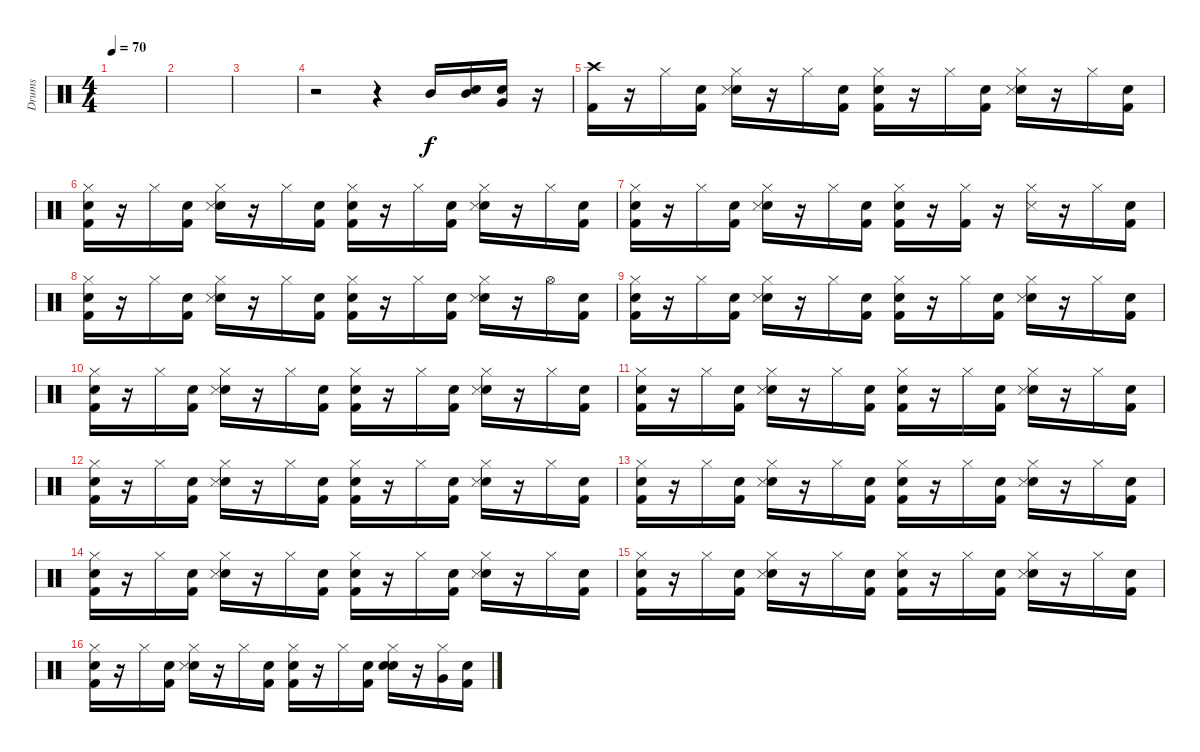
\track ("Drums" "Drums") {instrument percussion}
\staff {score}
\articulation defaults
\ts (4 4)
\tempo 70
\clef neutral
\ks c
|
|
|
r.2 r.4 "Mid Tom (hit)".16 ("Snare (hit)" "Mid Tom (hit)").16 ("Snare (hit)" "Very Low Tom (hit)").16 r.16 |
("Kick (hit) 2" "Crash high (hit)").16 r.16 "Hi-Hat (closed)".16 ("Snare (hit)" "Kick (hit) 2").16 ("Snare (hit)" "Snare (side stick) 3" "Hi-Hat (closed)").16 r.16 "Hi-Hat (closed)".16 ("Snare (hit)" "Kick (hit) 2").16 ("Snare (hit)" "Kick (hit) 2" "Hi-Hat (closed)").16 r.16 "Hi-Hat (closed)".16 ("Snare (hit)" "Kick (hit) 2").16 ("Snare (hit)" "Snare (side stick) 3" "Hi-Hat (closed)").16 r.16 "Hi-Hat (closed)".16 ("Snare (hit)" "Kick (hit) 2").16 |
("Snare (hit)" "Kick (hit) 2" "Hi-Hat (closed)").16 r.16 "Hi-Hat (closed)".16 ("Snare (hit)" "Kick (hit) 2").16 ("Snare (hit)" "Snare (side stick) 3" "Hi-Hat (closed)").16 r.16 "Hi-Hat (closed)".16 ("Snare (hit)" "Kick (hit) 2").16 ("Snare (hit)" "Kick (hit) 2" "Hi-Hat (closed)").16 r.16 "Hi-Hat (closed)".16 ("Snare (hit)" "Kick (hit) 2").16 ("Snare (hit)" "Snare (side stick) 3" "Hi-Hat (closed)").16 r.16 "Hi-Hat (closed)".16 ("Snare (hit)" "Kick (hit) 2").16 |
("Snare (hit)" "Kick (hit) 2" "Hi-Hat (closed)").16 r.16 "Hi-Hat (closed)".16 ("Snare (hit)" "Kick (hit) 2").16 ("Snare (hit)" "Snare (side stick) 3" "Hi-Hat (closed)").16 r.16 "Hi-Hat (closed)".16 ("Snare (hit)" "Kick (hit) 2").16 ("Snare (hit)" "Kick (hit) 2" "Hi-Hat (closed)").16 r.16 ("Kick (hit) 2" "Hi-Hat (closed)").16 r.16 ("Snare (side stick) 3" "Hi-Hat (closed)").16 r.16 "Hi-Hat (closed)".16 ("Snare (hit)" "Kick (hit) 2").16 |
("Snare (hit)" "Kick (hit) 2" "Hi-Hat (closed)").16 r.16 "Hi-Hat (closed)".16 ("Snare (hit)" "Kick (hit) 2").16 ("Snare (hit)" "Snare (side stick) 3" "Hi-Hat (closed)").16 r.16 "Hi-Hat (closed)".16 ("Snare (hit)" "Kick (hit) 2").16 ("Snare (hit)" "Kick (hit) 2" "Hi-Hat (closed)").16 r.16 "Hi-Hat (closed)".16 ("Snare (hit)" "Kick (hit) 2").16 ("Snare (hit)" "Snare (side stick) 3" "Hi-Hat (closed)").16 r.16 "Hi-Hat (open)".16 ("Snare (hit)" "Kick (hit) 2").16 |
("Snare (hit)" "Kick (hit) 2" "Hi-Hat (closed)").16 r.16 "Hi-Hat (closed)".16 ("Snare (hit)" "Kick (hit) 2").16 ("Snare (hit)" "Snare (side stick) 3" "Hi-Hat (closed)").16 r.16 "Hi-Hat (closed)".16 ("Snare (hit)" "Kick (hit) 2").16 ("Snare (hit)" "Kick (hit) 2" "Hi-Hat (closed)").16 r.16 "Hi-Hat (closed)".16 ("Snare (hit)" "Kick (hit) 2").16 ("Snare (hit)" "Snare (side stick) 3" "Hi-Hat (closed)").16 r.16 "Hi-Hat (closed)".16 ("Snare (hit)" "Kick (hit) 2").16 |
("Snare (hit)" "Kick (hit) 2" "Hi-Hat (closed)").16 r.16 "Hi-Hat (closed)".16 ("Snare (hit)" "Kick (hit) 2").16 ("Snare (hit)" "Snare (side stick) 3" "Hi-Hat (closed)").16 r.16 "Hi-Hat (closed)".16 ("Snare (hit)" "Kick (hit) 2").16 ("Snare (hit)" "Kick (hit) 2" "Hi-Hat (closed)").16 r.16 "Hi-Hat (closed)".16 ("Snare (hit)" "Kick (hit) 2").16 ("Snare (hit)" "Snare (side stick) 3" "Hi-Hat (closed)").16 r.16 "Hi-Hat (closed)".16 ("Snare (hit)" "Kick (hit) 2").16 |
("Snare (hit)" "Kick (hit) 2" "Hi-Hat (closed)").16 r.16 "Hi-Hat (closed)".16 ("Snare (hit)" "Kick (hit) 2").16 ("Snare (hit)" "Snare (side stick) 3" "Hi-Hat (closed)").16 r.16 "Hi-Hat (closed)".16 ("Snare (hit)" "Kick (hit) 2").16 ("Snare (hit)" "Kick (hit) 2" "Hi-Hat (closed)").16 r.16 "Hi-Hat (closed)".16 ("Snare (hit)" "Kick (hit) 2").16 ("Snare (hit)" "Snare (side stick) 3" "Hi-Hat (closed)").16 r.16 "Hi-Hat (closed)".16 ("Snare (hit)" "Kick (hit) 2").16 |
("Snare (hit)" "Kick (hit) 2" "Hi-Hat (closed)").16 r.16 "Hi-Hat (closed)".16 ("Snare (hit)" "Kick (hit) 2").16 ("Snare (hit)" "Snare (side stick) 3" "Hi-Hat (closed)").16 r.16 "Hi-Hat (closed)".16 ("Snare (hit)" "Kick (hit) 2").16 ("Snare (hit)" "Kick (hit) 2" "Hi-Hat (closed)").16 r.16 "Hi-Hat (closed)".16 ("Snare (hit)" "Kick (hit) 2").16 ("Snare (hit)" "Snare (side stick) 3" "Hi-Hat (closed)").16 r.16 "Hi-Hat (closed)".16 ("Snare (hit)" "Kick (hit) 2").16 |
("Snare (hit)" "Kick (hit) 2" "Hi-Hat (closed)").16 r.16 "Hi-Hat (closed)".16 ("Snare (hit)" "Kick (hit) 2").16 ("Snare (hit)" "Snare (side stick) 3" "Hi-Hat (closed)").16 r.16 "Hi-Hat (closed)".16 ("Snare (hit)" "Kick (hit) 2").16 ("Snare (hit)" "Kick (hit) 2" "Hi-Hat (closed)").16 r.16 "Hi-Hat (closed)".16 ("Snare (hit)" "Kick (hit) 2").16 ("Snare (hit)" "Snare (side stick) 3" "Hi-Hat (closed)").16 r.16 "Hi-Hat (closed)".16 ("Snare (hit)" "Kick (hit) 2").16 |
("Snare (hit)" "Kick (hit) 2" "Hi-Hat (closed)").16 r.16 "Hi-Hat (closed)".16 ("Snare (hit)" "Kick (hit) 2").16 ("Snare (hit)" "Snare (side stick) 3" "Hi-Hat (closed)").16 r.16 "Hi-Hat (closed)".16 ("Snare (hit)" "Kick (hit) 2").16 ("Snare (hit)" "Kick (hit) 2" "Hi-Hat (closed)").16 r.16 "Hi-Hat (closed)".16 ("Snare (hit)" "Kick (hit) 2").16 ("Snare (hit)" "Snare (side stick) 3" "Hi-Hat (closed)").16 r.16 "Hi-Hat (closed)".16 ("Snare (hit)" "Kick (hit) 2").16 |
("Snare (hit)" "Kick (hit) 2" "Hi-Hat (closed)").16 r.16 "Hi-Hat (closed)".16 ("Snare (hit)" "Kick (hit) 2").16 ("Snare (hit)" "Snare (side stick) 3" "Hi-Hat (closed)").16 r.16 "Hi-Hat (closed)".16 ("Snare (hit)" "Kick (hit) 2").16 ("Snare (hit)" "Kick (hit) 2" "Hi-Hat (closed)").16 r.16 "Hi-Hat (closed)".16 ("Snare (hit)" "Kick (hit) 2").16 ("Snare (hit)" "Snare (side stick) 3" "Hi-Hat (closed)").16 r.16 "Hi-Hat (closed)".16 ("Snare (hit)" "Kick (hit) 2").16 |
("Snare (hit)" "Kick (hit) 2" "Hi-Hat (closed)").16 r.16 "Hi-Hat (closed)".16 ("Snare (hit)" "Kick (hit) 2").16 ("Snare (hit)" "Snare (side stick) 3" "Hi-Hat (closed)").16 r.16 "Hi-Hat (closed)".16 ("Snare (hit)" "Kick (hit) 2").16 ("Snare (hit)" "Kick (hit) 2" "Hi-Hat (closed)").16 r.16 "Hi-Hat (closed)".16 ("Snare (hit)" "Kick (hit) 2").16 ("Snare (hit)" "Snare (hit) 2" "Hi-Hat (closed)").16 r.16 ("Hi-Hat (closed)" "Very Low Tom (hit)").16 ("Snare (hit)" "Kick (hit) 2").16
